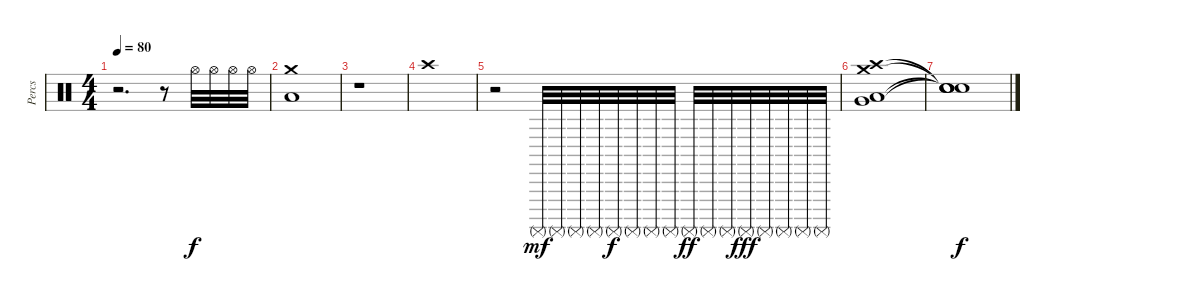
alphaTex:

\track ("Percs" "Percs") {instrument percussion}
\staff {score}
\articulation defaults
\ts (4 4)
\tempo 80
\clef neutral
\ks c
r.2{d dy f} r.8 "Hi-Hat (open)".32 "Hi-Hat (open)".32 "Hi-Hat (open)".32 "Hi-Hat (open)".32 |
("Crash medium (hit)" "Low Tom (hit)").1 |
r.1 |
"Crash high (hit)".1 |
r.2 "Surdo (mute)".32{dy mf} "Surdo (mute)".32 "Surdo (mute)".32 "Surdo (mute)".32 "Surdo (mute)".32{dy f} "Surdo (mute)".32 "Surdo (mute)".32 "Surdo (mute)".32 "Surdo (mute)".32{dy ff} "Surdo (mute)".32 "Surdo (mute)".32 "Surdo (mute)".32{dy fff} "Surdo (mute)".32 "Surdo (mute)".32 "Surdo (mute)".32 "Surdo (mute)".32 |
("Crash medium (hit)" "Crash high (hit)" "Low Tom (hit)" "Very Low Tom (hit)").1 |
("Snare (hit)"{t} "Snare (hit)"{t} "Snare (hit)"{t} "Snare (hit)"{t}).1{dy f}
